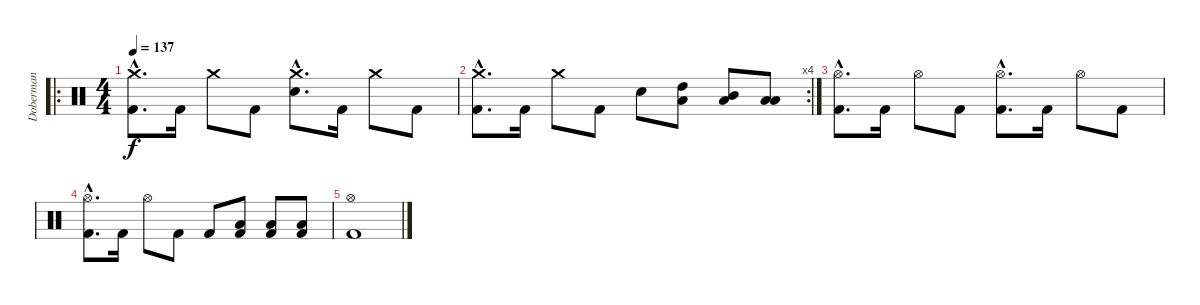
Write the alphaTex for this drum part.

\track ("Doberman" "Doberman") {instrument percussion}
\staff {score}
\articulation defaults
\ro
\ts (4 4)
\tempo 137
\clef neutral
\ks c
("Crash medium (hit)"{hac} "Kick (hit) 2"{hac}).8{d dy f} "Kick (hit) 2".16 "Crash medium (hit)".8 "Kick (hit) 2".8 ("Snare (hit) 2"{hac} "Crash medium (hit)"{hac}).8{d} "Kick (hit) 2".16 "Crash medium (hit)".8 "Kick (hit) 2".8 |
\rc 4
("Crash medium (hit)"{hac} "Kick (hit) 2"{hac}).8{d} "Kick (hit) 2".16 "Crash medium (hit)".8 "Kick (hit) 2".8 "Snare (hit) 2".8 ("High Tom (hit)" "Low Tom (hit)").8 ("Mid Tom (hit)" "Low Tom (hit)").8 ("Low Tom (hit)" "Low Tom (hit)").8 |
("Hi-Hat (open)"{hac} "Kick (hit) 2"{hac}).8{d} "Kick (hit) 2".16 "Hi-Hat (open)".8 "Kick (hit) 2".8 ("Hi-Hat (open)"{hac} "Kick (hit) 2"{hac}).8{d} "Kick (hit) 2".16 "Hi-Hat (open)".8 "Kick (hit) 2".8 |
("Hi-Hat (open)"{hac} "Kick (hit) 2"{hac}).8{d} "Kick (hit) 2".16 "Hi-Hat (open)".8 "Kick (hit) 2".8 "Kick (hit) 2".8 ("Low Tom (hit)" "Kick (hit) 2").8 ("Low Tom (hit)" "Kick (hit) 2").8 ("Low Tom (hit)" "Kick (hit) 2").8 |
("Hi-Hat (open)" "Kick (hit) 2").1
